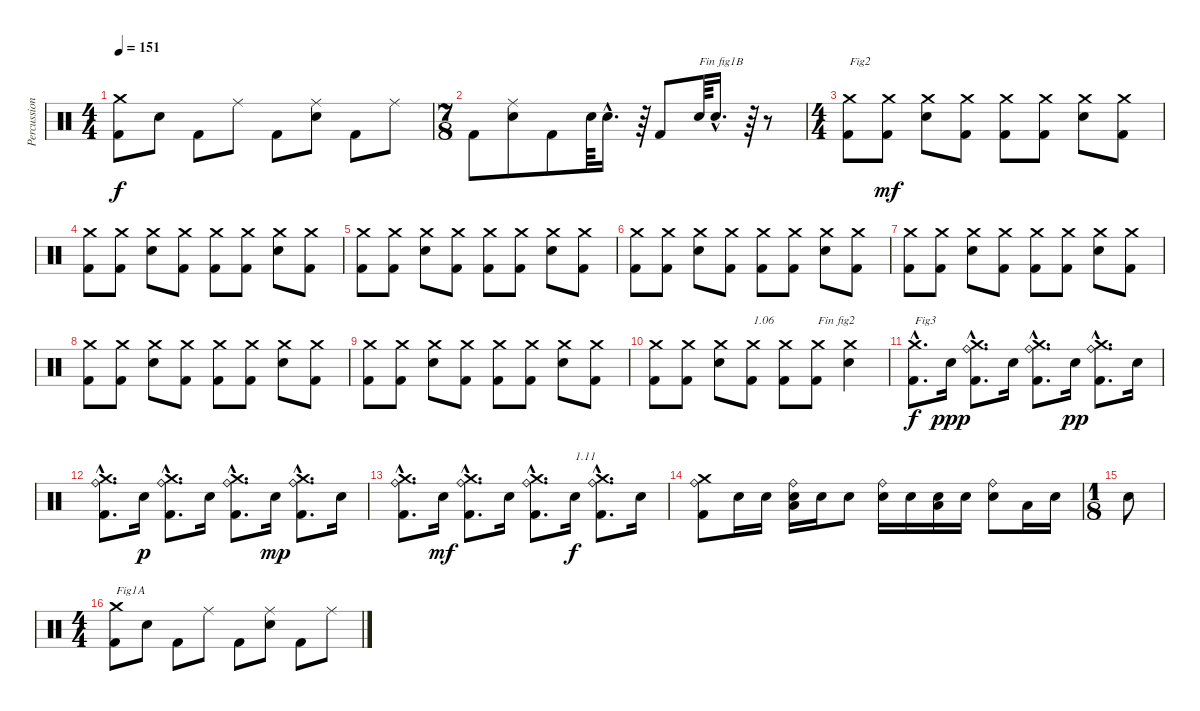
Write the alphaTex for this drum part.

\track ("Percussions" "Percussion") {instrument percussion}
\staff {score}
\articulation defaults
\ts (4 4)
\tempo 151
\clef neutral
\ks c
("Kick (hit) 2" "Crash medium (hit)").8{dy f} "Electric Snare (hit)".8 "Kick (hit) 2".8 "Ride (middle)".8 "Kick (hit) 2".8 ("Electric Snare (hit)" "Ride (middle)").8 "Kick (hit) 2".8 "Ride (middle)".8 |
\ts (7 8)
"Kick (hit) 2".8 ("Electric Snare (hit)" "Ride (middle)").8 "Kick (hit) 2".8 "Electric Snare (hit)".64 "Electric Snare (hit)"{hac}.16{d} r.64 "Kick (hit) 2".8 "Electric Snare (hit)".64{txt "Fin fig1B"} "Electric Snare (hit)"{hac}.16{d} r.64 r.8 |
\ts (4 4)
("Kick (hit) 2" "Crash medium (hit)").8{txt "Fig2"} ("Kick (hit) 2" "Crash medium (hit)").8{dy mf} ("Electric Snare (hit)" "Crash medium (hit)").8 ("Kick (hit) 2" "Crash medium (hit)").8 ("Kick (hit) 2" "Crash medium (hit)").8 ("Kick (hit) 2" "Crash medium (hit)").8 ("Electric Snare (hit)" "Crash medium (hit)").8 ("Kick (hit) 2" "Crash medium (hit)").8 |
("Kick (hit) 2" "Crash medium (hit)").8 ("Kick (hit) 2" "Crash medium (hit)").8 ("Electric Snare (hit)" "Crash medium (hit)").8 ("Kick (hit) 2" "Crash medium (hit)").8 ("Kick (hit) 2" "Crash medium (hit)").8 ("Kick (hit) 2" "Crash medium (hit)").8 ("Electric Snare (hit)" "Crash medium (hit)").8 ("Kick (hit) 2" "Crash medium (hit)").8 |
("Kick (hit) 2" "Crash medium (hit)").8 ("Kick (hit) 2" "Crash medium (hit)").8 ("Electric Snare (hit)" "Crash medium (hit)").8 ("Kick (hit) 2" "Crash medium (hit)").8 ("Kick (hit) 2" "Crash medium (hit)").8 ("Kick (hit) 2" "Crash medium (hit)").8 ("Electric Snare (hit)" "Crash medium (hit)").8 ("Kick (hit) 2" "Crash medium (hit)").8 |
("Kick (hit) 2" "Crash medium (hit)").8 ("Kick (hit) 2" "Crash medium (hit)").8 ("Electric Snare (hit)" "Crash medium (hit)").8 ("Kick (hit) 2" "Crash medium (hit)").8 ("Kick (hit) 2" "Crash medium (hit)").8 ("Kick (hit) 2" "Crash medium (hit)").8 ("Electric Snare (hit)" "Crash medium (hit)").8 ("Kick (hit) 2" "Crash medium (hit)").8 |
("Kick (hit) 2" "Crash medium (hit)").8 ("Kick (hit) 2" "Crash medium (hit)").8 ("Electric Snare (hit)" "Crash medium (hit)").8 ("Kick (hit) 2" "Crash medium (hit)").8 ("Kick (hit) 2" "Crash medium (hit)").8 ("Kick (hit) 2" "Crash medium (hit)").8 ("Electric Snare (hit)" "Crash medium (hit)").8 ("Kick (hit) 2" "Crash medium (hit)").8 |
("Kick (hit) 2" "Crash medium (hit)").8 ("Kick (hit) 2" "Crash medium (hit)").8 ("Electric Snare (hit)" "Crash medium (hit)").8 ("Kick (hit) 2" "Crash medium (hit)").8 ("Kick (hit) 2" "Crash medium (hit)").8 ("Kick (hit) 2" "Crash medium (hit)").8 ("Electric Snare (hit)" "Crash medium (hit)").8 ("Kick (hit) 2" "Crash medium (hit)").8 |
("Kick (hit) 2" "Crash medium (hit)").8 ("Kick (hit) 2" "Crash medium (hit)").8 ("Electric Snare (hit)" "Crash medium (hit)").8 ("Kick (hit) 2" "Crash medium (hit)").8 ("Kick (hit) 2" "Crash medium (hit)").8 ("Kick (hit) 2" "Crash medium (hit)").8 ("Electric Snare (hit)" "Crash medium (hit)").8 ("Kick (hit) 2" "Crash medium (hit)").8 |
("Kick (hit) 2" "Crash medium (hit)").8 ("Kick (hit) 2" "Crash medium (hit)").8 ("Electric Snare (hit)" "Crash medium (hit)").8 ("Kick (hit) 2" "Crash medium (hit)").8{txt "1.06"} ("Kick (hit) 2" "Crash medium (hit)").8 ("Kick (hit) 2" "Crash medium (hit)").8{txt "Fin fig2"} ("Electric Snare (hit)" "Crash medium (hit)").4 |
("Kick (hit) 2"{hac} "Crash medium (hit)"{hac}).8{d txt "Fig3" dy f} "Electric Snare (hit)".16{dy ppp} ("Kick (hit) 2"{hac} "Ride (bell)"{hac} "Crash medium (hit)"{hac}).8{d} "Electric Snare (hit)".16 ("Kick (hit) 2"{hac} "Ride (bell)"{hac} "Crash medium (hit)"{hac}).8{d} "Electric Snare (hit)".16{dy pp} ("Kick (hit) 2"{hac} "Ride (bell)"{hac} "Crash medium (hit)"{hac}).8{d} "Electric Snare (hit)".16 |
("Kick (hit) 2"{hac} "Ride (bell)"{hac} "Crash medium (hit)"{hac}).8{d} "Electric Snare (hit)".16{dy p} ("Kick (hit) 2"{hac} "Ride (bell)"{hac} "Crash medium (hit)"{hac}).8{d} "Electric Snare (hit)".16 ("Kick (hit) 2"{hac} "Ride (bell)"{hac} "Crash medium (hit)"{hac}).8{d} "Electric Snare (hit)".16{dy mp} ("Kick (hit) 2"{hac} "Ride (bell)"{hac} "Crash medium (hit)"{hac}).8{d} "Electric Snare (hit)".16 |
("Kick (hit) 2"{hac} "Ride (bell)"{hac} "Crash medium (hit)"{hac}).8{d} "Electric Snare (hit)".16{dy mf} ("Kick (hit) 2"{hac} "Ride (bell)"{hac} "Crash medium (hit)"{hac}).8{d} "Electric Snare (hit)".16 ("Kick (hit) 2"{hac} "Ride (bell)"{hac} "Crash medium (hit)"{hac}).8{d} "Electric Snare (hit)".16{txt "1.11" dy f} ("Kick (hit) 2"{hac} "Ride (bell)"{hac} "Crash medium (hit)"{hac}).8{d} "Electric Snare (hit)".16 |
("Kick (hit) 2" "Ride (bell)" "Crash medium (hit)").8 "Electric Snare (hit)".16 "Electric Snare (hit)".16 ("Electric Snare (hit)" "Low Floor Tom (hit)" "Ride (bell)").16 "Electric Snare (hit)".16 "Electric Snare (hit)".8 ("Electric Snare (hit)" "Ride (bell)").16 "Electric Snare (hit)".16 ("Electric Snare (hit)" "Low Floor Tom (hit)").16 "Electric Snare (hit)".16 ("Electric Snare (hit)" "Ride (bell)").8 "Low Floor Tom (hit)".16 "Electric Snare (hit)".16 |
\ts (1 8)
"Electric Snare (hit)".8 |
\ts (4 4)
("Kick (hit) 2" "Crash medium (hit)").8{txt "Fig1A"} "Electric Snare (hit)".8 "Kick (hit) 2".8 "Ride (middle)".8 "Kick (hit) 2".8 ("Electric Snare (hit)" "Ride (middle)").8 "Kick (hit) 2".8 "Ride (middle)".8
